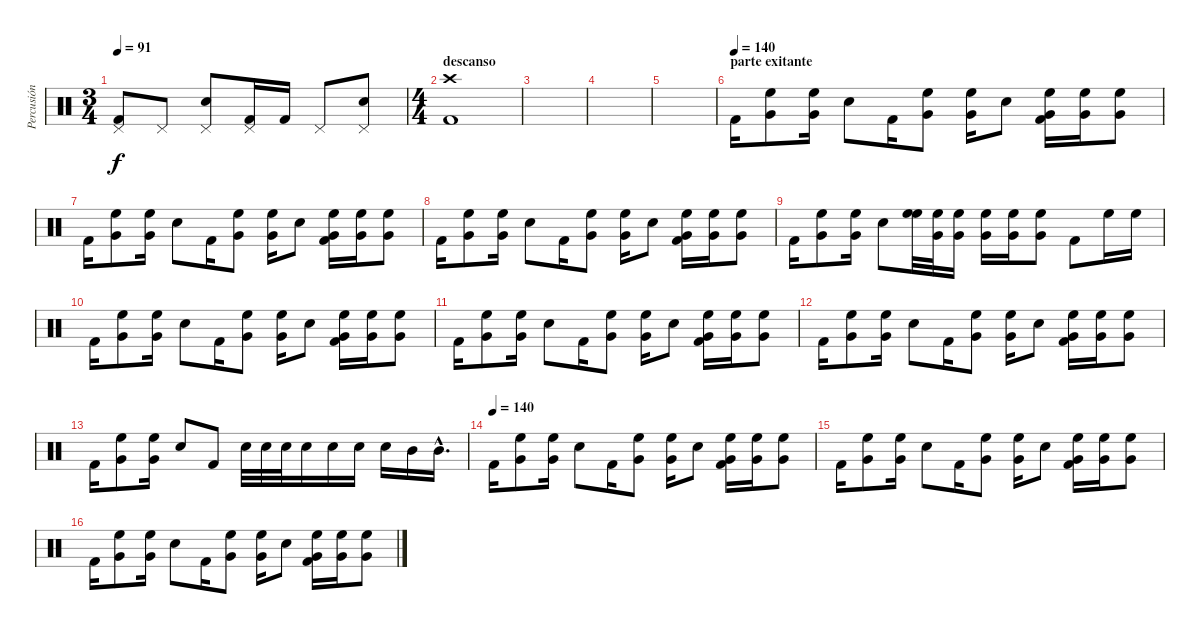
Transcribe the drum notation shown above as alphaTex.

\track ("Percusión" "Percusión") {instrument percussion}
\staff {score}
\articulation defaults
\ts (3 4)
\tempo 91
\clef neutral
\ks c
("Pedal Hi-Hat (hit)" "Kick (hit) 2").8{dy f} "Pedal Hi-Hat (hit)".8 ("Pedal Hi-Hat (hit)" "Electric Snare (hit)").8 ("Pedal Hi-Hat (hit)" "Kick (hit) 2").16 "Kick (hit) 2".16 "Pedal Hi-Hat (hit)".8 ("Pedal Hi-Hat (hit)" "Electric Snare (hit)").8 |
\ts (4 4)
\section ("" "descanso")
("Crash high (hit)" "Kick (hit) 2").1 |
|
|
|
\section ("" "parte exitante")
\tempo (140)
"Kick (hit) 2".16 ("Very Low Tom (hit)" "High Floor Tom (hit)").8 ("Very Low Tom (hit)" "High Floor Tom (hit)").16 "Electric Snare (hit)".8 "Kick (hit) 2".16 ("Very Low Tom (hit)" "High Floor Tom (hit)").8 ("Very Low Tom (hit)" "High Floor Tom (hit)").16 "Electric Snare (hit)".8 ("Very Low Tom (hit)" "High Floor Tom (hit)" "Kick (hit) 2").16 ("Very Low Tom (hit)" "High Floor Tom (hit)").16 ("Very Low Tom (hit)" "High Floor Tom (hit)").8 |
"Kick (hit) 2".16 ("Very Low Tom (hit)" "High Floor Tom (hit)").8 ("Very Low Tom (hit)" "High Floor Tom (hit)").16 "Electric Snare (hit)".8 "Kick (hit) 2".16 ("Very Low Tom (hit)" "High Floor Tom (hit)").8 ("Very Low Tom (hit)" "High Floor Tom (hit)").16 "Electric Snare (hit)".8 ("Very Low Tom (hit)" "High Floor Tom (hit)" "Kick (hit) 2").16 ("Very Low Tom (hit)" "High Floor Tom (hit)").16 ("Very Low Tom (hit)" "High Floor Tom (hit)").8 |
"Kick (hit) 2".16 ("Very Low Tom (hit)" "High Floor Tom (hit)").8 ("Very Low Tom (hit)" "High Floor Tom (hit)").16 "Electric Snare (hit)".8 "Kick (hit) 2".16 ("Very Low Tom (hit)" "High Floor Tom (hit)").8 ("Very Low Tom (hit)" "High Floor Tom (hit)").16 "Electric Snare (hit)".8 ("Very Low Tom (hit)" "High Floor Tom (hit)" "Kick (hit) 2").16 ("Very Low Tom (hit)" "High Floor Tom (hit)").16 ("Very Low Tom (hit)" "High Floor Tom (hit)").8 |
"Kick (hit) 2".16 ("Very Low Tom (hit)" "High Floor Tom (hit)").8 ("Very Low Tom (hit)" "High Floor Tom (hit)").16 "Electric Snare (hit)".8 ("High Floor Tom (hit)" "High Floor Tom (hit)").32 ("Very Low Tom (hit)" "High Floor Tom (hit)").32 ("Very Low Tom (hit)" "High Floor Tom (hit)").16 ("Very Low Tom (hit)" "High Floor Tom (hit)").16 ("Very Low Tom (hit)" "High Floor Tom (hit)").16 ("Very Low Tom (hit)" "High Floor Tom (hit)").8 "Kick (hit) 2".8 "High Floor Tom (hit)".16 "High Floor Tom (hit)".16 |
"Kick (hit) 2".16 ("Very Low Tom (hit)" "High Floor Tom (hit)").8 ("Very Low Tom (hit)" "High Floor Tom (hit)").16 "Electric Snare (hit)".8 "Kick (hit) 2".16 ("Very Low Tom (hit)" "High Floor Tom (hit)").8 ("Very Low Tom (hit)" "High Floor Tom (hit)").16 "Electric Snare (hit)".8 ("Very Low Tom (hit)" "High Floor Tom (hit)" "Kick (hit) 2").16 ("Very Low Tom (hit)" "High Floor Tom (hit)").16 ("Very Low Tom (hit)" "High Floor Tom (hit)").8 |
"Kick (hit) 2".16 ("Very Low Tom (hit)" "High Floor Tom (hit)").8 ("Very Low Tom (hit)" "High Floor Tom (hit)").16 "Electric Snare (hit)".8 "Kick (hit) 2".16 ("Very Low Tom (hit)" "High Floor Tom (hit)").8 ("Very Low Tom (hit)" "High Floor Tom (hit)").16 "Electric Snare (hit)".8 ("Very Low Tom (hit)" "High Floor Tom (hit)" "Kick (hit) 2").16 ("Very Low Tom (hit)" "High Floor Tom (hit)").16 ("Very Low Tom (hit)" "High Floor Tom (hit)").8 |
"Kick (hit) 2".16 ("Very Low Tom (hit)" "High Floor Tom (hit)").8 ("Very Low Tom (hit)" "High Floor Tom (hit)").16 "Electric Snare (hit)".8 "Kick (hit) 2".16 ("Very Low Tom (hit)" "High Floor Tom (hit)").8 ("Very Low Tom (hit)" "High Floor Tom (hit)").16 "Electric Snare (hit)".8 ("Very Low Tom (hit)" "High Floor Tom (hit)" "Kick (hit) 2").16 ("Very Low Tom (hit)" "High Floor Tom (hit)").16 ("Very Low Tom (hit)" "High Floor Tom (hit)").8 |
"Kick (hit) 2".16 ("Very Low Tom (hit)" "High Floor Tom (hit)").8 ("Very Low Tom (hit)" "High Floor Tom (hit)").16 "Electric Snare (hit)".8 "Kick (hit) 2".8 "Electric Snare (hit)".32 "Electric Snare (hit)".32 "Electric Snare (hit)".32 "Electric Snare (hit)".16 "Electric Snare (hit)".16 "Electric Snare (hit)".16 "Electric Snare (hit)".16 "Mid Tom (hit)".16 "Mid Tom (hit)"{hac}.16{d} |
\tempo (140)
"Kick (hit) 2".16 ("Very Low Tom (hit)" "High Floor Tom (hit)").8 ("Very Low Tom (hit)" "High Floor Tom (hit)").16 "Electric Snare (hit)".8 "Kick (hit) 2".16 ("Very Low Tom (hit)" "High Floor Tom (hit)").8 ("Very Low Tom (hit)" "High Floor Tom (hit)").16 "Electric Snare (hit)".8 ("Very Low Tom (hit)" "High Floor Tom (hit)" "Kick (hit) 2").16 ("Very Low Tom (hit)" "High Floor Tom (hit)").16 ("Very Low Tom (hit)" "High Floor Tom (hit)").8 |
"Kick (hit) 2".16 ("Very Low Tom (hit)" "High Floor Tom (hit)").8 ("Very Low Tom (hit)" "High Floor Tom (hit)").16 "Electric Snare (hit)".8 "Kick (hit) 2".16 ("Very Low Tom (hit)" "High Floor Tom (hit)").8 ("Very Low Tom (hit)" "High Floor Tom (hit)").16 "Electric Snare (hit)".8 ("Very Low Tom (hit)" "High Floor Tom (hit)" "Kick (hit) 2").16 ("Very Low Tom (hit)" "High Floor Tom (hit)").16 ("Very Low Tom (hit)" "High Floor Tom (hit)").8 |
"Kick (hit) 2".16 ("Very Low Tom (hit)" "High Floor Tom (hit)").8 ("Very Low Tom (hit)" "High Floor Tom (hit)").16 "Electric Snare (hit)".8 "Kick (hit) 2".16 ("Very Low Tom (hit)" "High Floor Tom (hit)").8 ("Very Low Tom (hit)" "High Floor Tom (hit)").16 "Electric Snare (hit)".8 ("Very Low Tom (hit)" "High Floor Tom (hit)" "Kick (hit) 2").16 ("Very Low Tom (hit)" "High Floor Tom (hit)").16 ("Very Low Tom (hit)" "High Floor Tom (hit)").8
